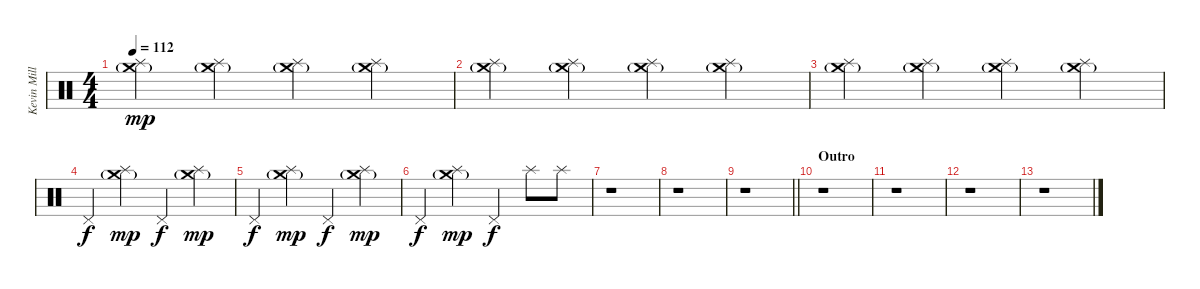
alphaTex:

\track ("Kevin Miller (Drums)" "Kevin Mill") {instrument percussion}
\staff {score}
\articulation defaults
\ts (4 4)
\tempo 112
\clef neutral
\ks c
("Splash (hit)" "Crash medium (hit)"{g}).4{dy mp} ("Splash (hit)" "Crash medium (hit)"{g}).4 ("Splash (hit)" "Crash medium (hit)"{g}).4 ("Splash (hit)" "Crash medium (hit)"{g}).4 |
("Splash (hit)" "Crash medium (hit)"{g}).4 ("Splash (hit)" "Crash medium (hit)"{g}).4 ("Splash (hit)" "Crash medium (hit)"{g}).4 ("Splash (hit)" "Crash medium (hit)"{g}).4 |
("Splash (hit)" "Crash medium (hit)"{g}).4 ("Splash (hit)" "Crash medium (hit)"{g}).4 ("Splash (hit)" "Crash medium (hit)"{g}).4 ("Splash (hit)" "Crash medium (hit)"{g}).4 |
"Pedal Hi-Hat (hit)".4{dy f} ("Splash (hit)" "Crash medium (hit)"{g}).4{dy mp} "Pedal Hi-Hat (hit)".4{dy f} ("Splash (hit)" "Crash medium (hit)"{g}).4{dy mp} |
"Pedal Hi-Hat (hit)".4{dy f} ("Splash (hit)" "Crash medium (hit)"{g}).4{dy mp} "Pedal Hi-Hat (hit)".4{dy f} ("Splash (hit)" "Crash medium (hit)"{g}).4{dy mp} |
"Pedal Hi-Hat (hit)".4{dy f} ("Splash (hit)" "Crash medium (hit)"{g}).4{dy mp} "Pedal Hi-Hat (hit)".4{dy f} "Splash (hit)".8 "Splash (hit)".8 |
r.1 |
r.1 |
\barLineRight lightlight
r.1 |
\section ("" "Outro")
r.1 |
r.1 |
r.1 |
r.1
